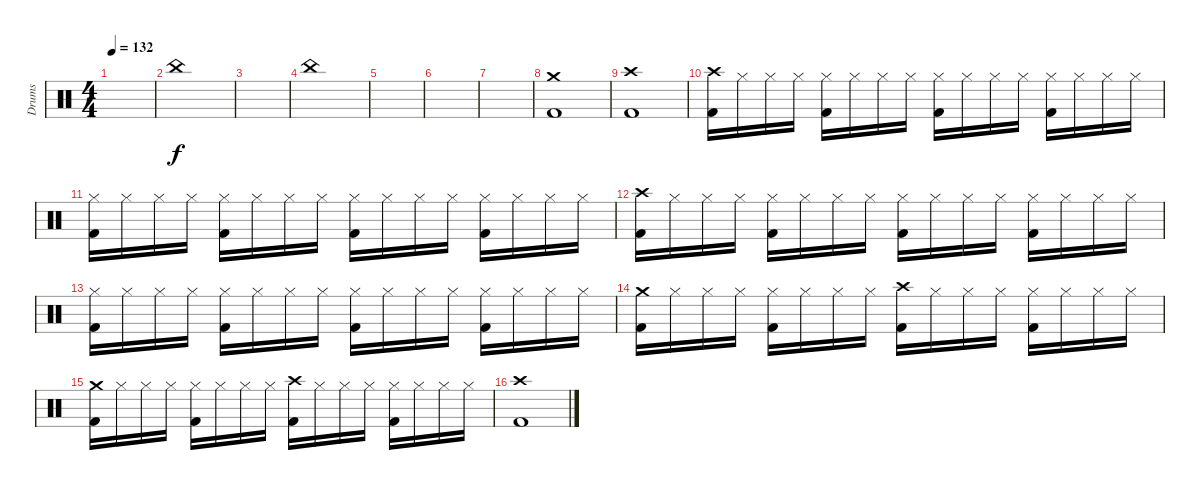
\track ("Drums" "Drums") {instrument percussion}
\staff {score}
\articulation defaults
\ts (4 4)
\tempo 132
\clef neutral
\ks c
|
"China (hit)".1 |
|
"China (hit)".1 |
|
|
|
("Crash medium (hit)" "Kick (hit) 2").1 |
("Crash high (hit)" "Kick (hit) 2").1 |
("Crash high (hit)" "Kick (hit) 2").16 "Hi-Hat (closed)".16 "Hi-Hat (closed)".16 "Hi-Hat (closed)".16 ("Hi-Hat (closed)" "Kick (hit) 2").16 "Hi-Hat (closed)".16 "Hi-Hat (closed)".16 "Hi-Hat (closed)".16 ("Hi-Hat (closed)" "Kick (hit) 2").16 "Hi-Hat (closed)".16 "Hi-Hat (closed)".16 "Hi-Hat (closed)".16 ("Hi-Hat (closed)" "Kick (hit) 2").16 "Hi-Hat (closed)".16 "Hi-Hat (closed)".16 "Hi-Hat (closed)".16 |
("Hi-Hat (closed)" "Kick (hit) 2").16 "Hi-Hat (closed)".16 "Hi-Hat (closed)".16 "Hi-Hat (closed)".16 ("Hi-Hat (closed)" "Kick (hit) 2").16 "Hi-Hat (closed)".16 "Hi-Hat (closed)".16 "Hi-Hat (closed)".16 ("Hi-Hat (closed)" "Kick (hit) 2").16 "Hi-Hat (closed)".16 "Hi-Hat (closed)".16 "Hi-Hat (closed)".16 ("Hi-Hat (closed)" "Kick (hit) 2").16 "Hi-Hat (closed)".16 "Hi-Hat (closed)".16 "Hi-Hat (closed)".16 |
("Crash high (hit)" "Kick (hit) 2").16 "Hi-Hat (closed)".16 "Hi-Hat (closed)".16 "Hi-Hat (closed)".16 ("Hi-Hat (closed)" "Kick (hit) 2").16 "Hi-Hat (closed)".16 "Hi-Hat (closed)".16 "Hi-Hat (closed)".16 ("Hi-Hat (closed)" "Kick (hit) 2").16 "Hi-Hat (closed)".16 "Hi-Hat (closed)".16 "Hi-Hat (closed)".16 ("Hi-Hat (closed)" "Kick (hit) 2").16 "Hi-Hat (closed)".16 "Hi-Hat (closed)".16 "Hi-Hat (closed)".16 |
("Hi-Hat (closed)" "Kick (hit) 2").16 "Hi-Hat (closed)".16 "Hi-Hat (closed)".16 "Hi-Hat (closed)".16 ("Hi-Hat (closed)" "Kick (hit) 2").16 "Hi-Hat (closed)".16 "Hi-Hat (closed)".16 "Hi-Hat (closed)".16 ("Hi-Hat (closed)" "Kick (hit) 2").16 "Hi-Hat (closed)".16 "Hi-Hat (closed)".16 "Hi-Hat (closed)".16 ("Hi-Hat (closed)" "Kick (hit) 2").16 "Hi-Hat (closed)".16 "Hi-Hat (closed)".16 "Hi-Hat (closed)".16 |
("Crash medium (hit)" "Kick (hit) 2").16 "Hi-Hat (closed)".16 "Hi-Hat (closed)".16 "Hi-Hat (closed)".16 ("Hi-Hat (closed)" "Kick (hit) 2").16 "Hi-Hat (closed)".16 "Hi-Hat (closed)".16 "Hi-Hat (closed)".16 ("Crash high (hit)" "Kick (hit) 2").16 "Hi-Hat (closed)".16 "Hi-Hat (closed)".16 "Hi-Hat (closed)".16 ("Hi-Hat (closed)" "Kick (hit) 2").16 "Hi-Hat (closed)".16 "Hi-Hat (closed)".16 "Hi-Hat (closed)".16 |
("Crash medium (hit)" "Kick (hit) 2").16 "Hi-Hat (closed)".16 "Hi-Hat (closed)".16 "Hi-Hat (closed)".16 ("Hi-Hat (closed)" "Kick (hit) 2").16 "Hi-Hat (closed)".16 "Hi-Hat (closed)".16 "Hi-Hat (closed)".16 ("Crash high (hit)" "Kick (hit) 2").16 "Hi-Hat (closed)".16 "Hi-Hat (closed)".16 "Hi-Hat (closed)".16 ("Hi-Hat (closed)" "Kick (hit) 2").16 "Hi-Hat (closed)".16 "Hi-Hat (closed)".16 "Hi-Hat (closed)".16 |
("Crash high (hit)" "Kick (hit) 2").1
